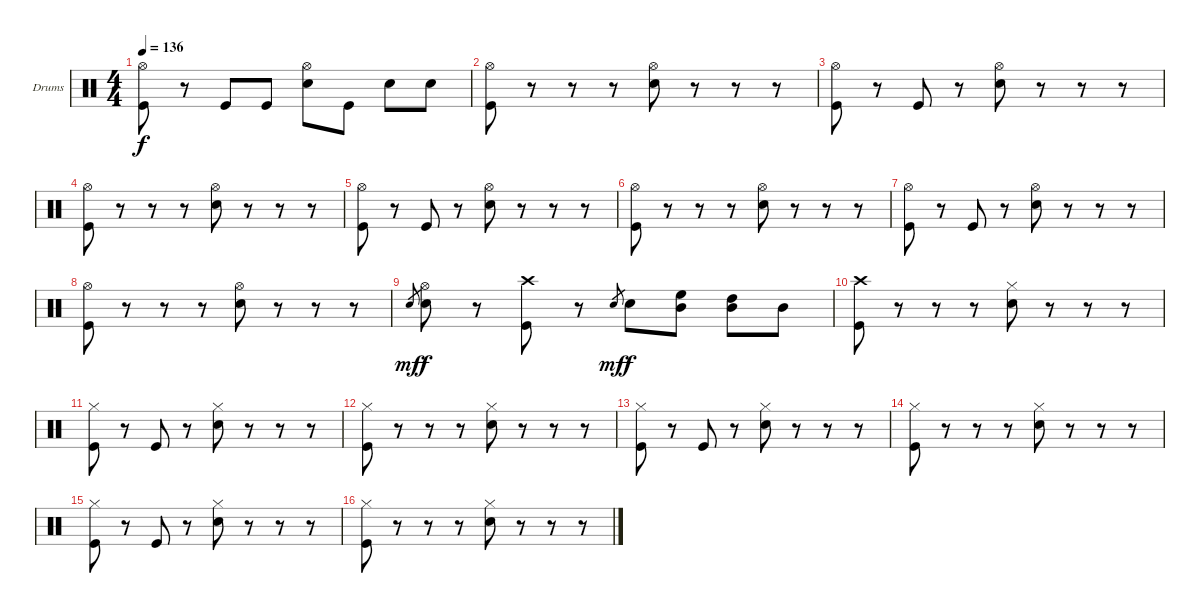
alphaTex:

\defaultSystemsLayout 4
\bracketExtendMode groupsimilarinstruments
\firstSystemTrackNameOrientation horizontal
\otherSystemsTrackNameOrientation horizontal
\track ("Барабаны" "Drums") {instrument percussion}
\staff {score}
\articulation defaults
\ts (4 4)
\tempo 136
\clef neutral
\ks c
("Hi-Hat (open)" "Kick (hit)").8{dy f} r.8 "Kick (hit)".8 "Kick (hit)".8 ("Hi-Hat (open)" "Snare (hit) 2").8 "Kick (hit)".8 "Snare (hit) 2".8 "Snare (hit) 2".8 |
("Hi-Hat (open)" "Kick (hit)").8 r.8 r.8 r.8 ("Hi-Hat (open)" "Snare (hit) 2").8 r.8 r.8 r.8 |
("Hi-Hat (open)" "Kick (hit)").8 r.8 "Kick (hit)".8 r.8 ("Hi-Hat (open)" "Snare (hit) 2").8 r.8 r.8 r.8 |
("Hi-Hat (open)" "Kick (hit)").8 r.8 r.8 r.8 ("Hi-Hat (open)" "Snare (hit) 2").8 r.8 r.8 r.8 |
("Hi-Hat (open)" "Kick (hit)").8 r.8 "Kick (hit)".8 r.8 ("Hi-Hat (open)" "Snare (hit) 2").8 r.8 r.8 r.8 |
("Hi-Hat (open)" "Kick (hit)").8 r.8 r.8 r.8 ("Hi-Hat (open)" "Snare (hit) 2").8 r.8 r.8 r.8 |
("Hi-Hat (open)" "Kick (hit)").8 r.8 "Kick (hit)".8 r.8 ("Hi-Hat (open)" "Snare (hit) 2").8 r.8 r.8 r.8 |
("Hi-Hat (open)" "Kick (hit)").8 r.8 r.8 r.8 ("Hi-Hat (open)" "Snare (hit) 2").8 r.8 r.8 r.8 |
"Snare (hit) 2".8{gr dy mf} ("Hi-Hat (open)" "Snare (hit) 2").8{dy f} r.8 ("Crash high (hit)" "Kick (hit)").8 r.8 "Snare (hit) 2".8{gr dy mf} "Snare (hit) 2".8{dy f} ("Mid Tom (hit)" "High Floor Tom (hit)").8 ("Mid Tom (hit)" "High Tom (hit)").8 "Mid Tom (hit)".8 |
("Crash high (hit)" "Kick (hit)").8 r.8 r.8 r.8 ("Hi-Hat (closed)" "Snare (hit) 2").8 r.8 r.8 r.8 |
("Hi-Hat (closed)" "Kick (hit)").8 r.8 "Kick (hit)".8 r.8 ("Hi-Hat (closed)" "Snare (hit) 2").8 r.8 r.8 r.8 |
("Hi-Hat (closed)" "Kick (hit)").8 r.8 r.8 r.8 ("Hi-Hat (closed)" "Snare (hit) 2").8 r.8 r.8 r.8 |
("Hi-Hat (closed)" "Kick (hit)").8 r.8 "Kick (hit)".8 r.8 ("Hi-Hat (closed)" "Snare (hit) 2").8 r.8 r.8 r.8 |
("Hi-Hat (closed)" "Kick (hit)").8 r.8 r.8 r.8 ("Hi-Hat (closed)" "Snare (hit) 2").8 r.8 r.8 r.8 |
("Hi-Hat (closed)" "Kick (hit)").8 r.8 "Kick (hit)".8 r.8 ("Hi-Hat (closed)" "Snare (hit) 2").8 r.8 r.8 r.8 |
("Hi-Hat (closed)" "Kick (hit)").8 r.8 r.8 r.8 ("Hi-Hat (closed)" "Snare (hit) 2").8 r.8 r.8 r.8
